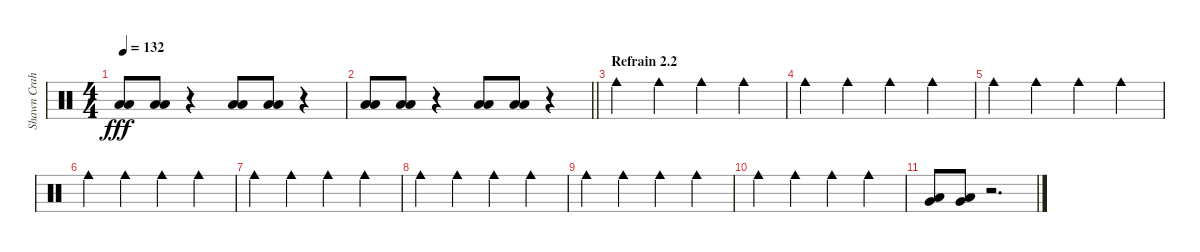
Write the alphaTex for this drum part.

\track ("Shawn Crahan" "Shawn Crah") {instrument percussion}
\staff {score}
\articulation defaults
\ts (4 4)
\tempo 132
\clef neutral
\ks c
("Low Floor Tom (hit)" "Low Floor Tom (hit)").8{dy fff} ("Low Floor Tom (hit)" "Low Floor Tom (hit)").8 r.4 ("Low Floor Tom (hit)" "Low Floor Tom (hit)").8 ("Low Floor Tom (hit)" "Low Floor Tom (hit)").8 r.4 |
\barLineRight lightlight
("Low Floor Tom (hit)" "Low Floor Tom (hit)").8 ("Low Floor Tom (hit)" "Low Floor Tom (hit)").8 r.4 ("Low Floor Tom (hit)" "Low Floor Tom (hit)").8 ("Low Floor Tom (hit)" "Low Floor Tom (hit)").8 r.4 |
\section ("" "Refrain 2.2")
"Cowbell medium (hit)".4 "Cowbell medium (hit)".4 "Cowbell medium (hit)".4 "Cowbell medium (hit)".4 |
"Cowbell medium (hit)".4 "Cowbell medium (hit)".4 "Cowbell medium (hit)".4 "Cowbell medium (hit)".4 |
"Cowbell medium (hit)".4 "Cowbell medium (hit)".4 "Cowbell medium (hit)".4 "Cowbell medium (hit)".4 |
"Cowbell medium (hit)".4 "Cowbell medium (hit)".4 "Cowbell medium (hit)".4 "Cowbell medium (hit)".4 |
"Cowbell medium (hit)".4 "Cowbell medium (hit)".4 "Cowbell medium (hit)".4 "Cowbell medium (hit)".4 |
"Cowbell medium (hit)".4 "Cowbell medium (hit)".4 "Cowbell medium (hit)".4 "Cowbell medium (hit)".4 |
"Cowbell medium (hit)".4 "Cowbell medium (hit)".4 "Cowbell medium (hit)".4 "Cowbell medium (hit)".4 |
"Cowbell medium (hit)".4 "Cowbell medium (hit)".4 "Cowbell medium (hit)".4 "Cowbell medium (hit)".4 |
("Very Low Tom (hit)" "Low Floor Tom (hit)").8 ("Very Low Tom (hit)" "Low Floor Tom (hit)").8 r.2{d}
